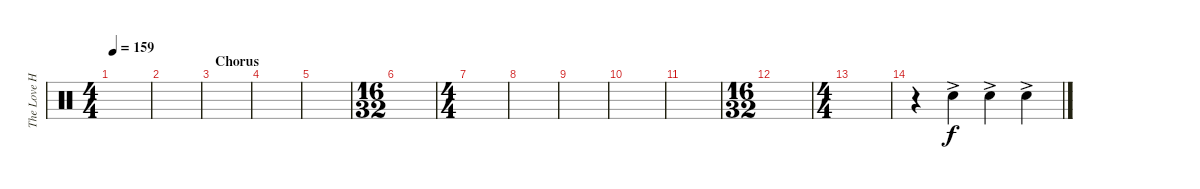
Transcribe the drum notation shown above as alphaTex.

\track ("The Love Haters (Hand Clap)(Drums)" "The Love H") {instrument percussion}
\staff {score}
\articulation defaults
\ts (4 4)
\tempo 159
\clef neutral
\ks c
|
|
\section ("" "Chorus")
|
|
|
\ts (16 32)
|
\ts (4 4)
|
|
|
|
|
\ts (16 32)
|
\ts (4 4)
|
r.4 "Hand Clap (hit)"{ac}.4 "Hand Clap (hit)"{ac}.4 "Hand Clap (hit)"{ac}.4
